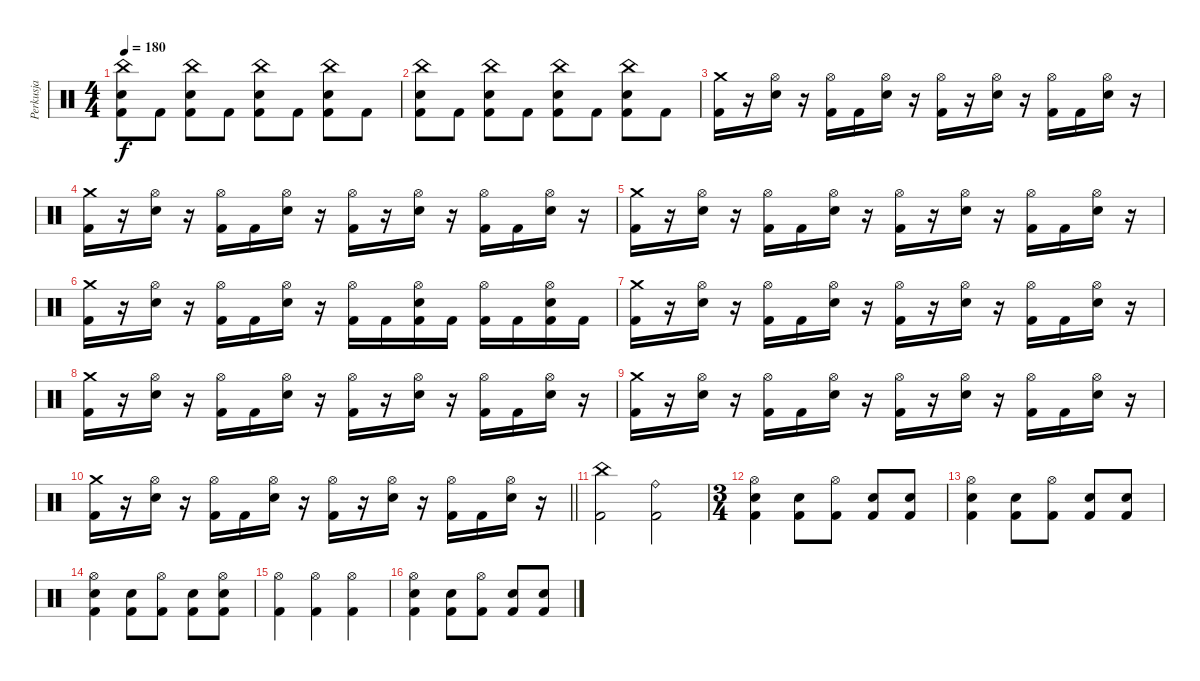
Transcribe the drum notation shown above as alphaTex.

\track ("Perkusja" "Perkusja") {instrument percussion}
\staff {score}
\articulation defaults
\ts (4 4)
\tempo 180
\clef neutral
\ks c
("China (hit)" "Snare (hit) 2" "Kick (hit) 2").8{dy f} "Kick (hit) 2".8 ("China (hit)" "Snare (hit) 2" "Kick (hit) 2").8 "Kick (hit) 2".8 ("China (hit)" "Snare (hit) 2" "Kick (hit) 2").8 "Kick (hit) 2".8 ("China (hit)" "Snare (hit) 2" "Kick (hit) 2").8 "Kick (hit) 2".8 |
("China (hit)" "Snare (hit) 2" "Kick (hit) 2").8 "Kick (hit) 2".8 ("China (hit)" "Snare (hit) 2" "Kick (hit) 2").8 "Kick (hit) 2".8 ("China (hit)" "Snare (hit) 2" "Kick (hit) 2").8 "Kick (hit) 2".8 ("China (hit)" "Snare (hit) 2" "Kick (hit) 2").8 "Kick (hit) 2".8 |
("Crash medium (hit)" "Kick (hit) 2").16 r.16 ("Hi-Hat (open)" "Snare (hit) 2").16 r.16 ("Hi-Hat (open)" "Kick (hit) 2").16 "Kick (hit) 2".16 ("Hi-Hat (open)" "Snare (hit) 2").16 r.16 ("Hi-Hat (open)" "Kick (hit) 2").16 r.16 ("Hi-Hat (open)" "Snare (hit) 2").16 r.16 ("Hi-Hat (open)" "Kick (hit) 2").16 "Kick (hit) 2".16 ("Hi-Hat (open)" "Snare (hit) 2").16 r.16 |
("Crash medium (hit)" "Kick (hit) 2").16 r.16 ("Hi-Hat (open)" "Snare (hit) 2").16 r.16 ("Hi-Hat (open)" "Kick (hit) 2").16 "Kick (hit) 2".16 ("Hi-Hat (open)" "Snare (hit) 2").16 r.16 ("Hi-Hat (open)" "Kick (hit) 2").16 r.16 ("Hi-Hat (open)" "Snare (hit) 2").16 r.16 ("Hi-Hat (open)" "Kick (hit) 2").16 "Kick (hit) 2".16 ("Hi-Hat (open)" "Snare (hit) 2").16 r.16 |
("Crash medium (hit)" "Kick (hit) 2").16 r.16 ("Hi-Hat (open)" "Snare (hit) 2").16 r.16 ("Hi-Hat (open)" "Kick (hit) 2").16 "Kick (hit) 2".16 ("Hi-Hat (open)" "Snare (hit) 2").16 r.16 ("Hi-Hat (open)" "Kick (hit) 2").16 r.16 ("Hi-Hat (open)" "Snare (hit) 2").16 r.16 ("Hi-Hat (open)" "Kick (hit) 2").16 "Kick (hit) 2".16 ("Hi-Hat (open)" "Snare (hit) 2").16 r.16 |
("Crash medium (hit)" "Kick (hit) 2").16 r.16 ("Hi-Hat (open)" "Snare (hit) 2").16 r.16 ("Hi-Hat (open)" "Kick (hit) 2").16 "Kick (hit) 2".16 ("Hi-Hat (open)" "Snare (hit) 2").16 r.16 ("Hi-Hat (open)" "Kick (hit) 2").16 "Kick (hit) 2".16 ("Hi-Hat (open)" "Snare (hit) 2" "Kick (hit) 2").16 "Kick (hit) 2".16 ("Hi-Hat (open)" "Kick (hit) 2").16 "Kick (hit) 2".16 ("Hi-Hat (open)" "Snare (hit) 2" "Kick (hit) 2").16 "Kick (hit) 2".16 |
("Crash medium (hit)" "Kick (hit) 2").16 r.16 ("Hi-Hat (open)" "Snare (hit) 2").16 r.16 ("Hi-Hat (open)" "Kick (hit) 2").16 "Kick (hit) 2".16 ("Hi-Hat (open)" "Snare (hit) 2").16 r.16 ("Hi-Hat (open)" "Kick (hit) 2").16 r.16 ("Hi-Hat (open)" "Snare (hit) 2").16 r.16 ("Hi-Hat (open)" "Kick (hit) 2").16 "Kick (hit) 2".16 ("Hi-Hat (open)" "Snare (hit) 2").16 r.16 |
("Crash medium (hit)" "Kick (hit) 2").16 r.16 ("Hi-Hat (open)" "Snare (hit) 2").16 r.16 ("Hi-Hat (open)" "Kick (hit) 2").16 "Kick (hit) 2".16 ("Hi-Hat (open)" "Snare (hit) 2").16 r.16 ("Hi-Hat (open)" "Kick (hit) 2").16 r.16 ("Hi-Hat (open)" "Snare (hit) 2").16 r.16 ("Hi-Hat (open)" "Kick (hit) 2").16 "Kick (hit) 2".16 ("Hi-Hat (open)" "Snare (hit) 2").16 r.16 |
("Crash medium (hit)" "Kick (hit) 2").16 r.16 ("Hi-Hat (open)" "Snare (hit) 2").16 r.16 ("Hi-Hat (open)" "Kick (hit) 2").16 "Kick (hit) 2".16 ("Hi-Hat (open)" "Snare (hit) 2").16 r.16 ("Hi-Hat (open)" "Kick (hit) 2").16 r.16 ("Hi-Hat (open)" "Snare (hit) 2").16 r.16 ("Hi-Hat (open)" "Kick (hit) 2").16 "Kick (hit) 2".16 ("Hi-Hat (open)" "Snare (hit) 2").16 r.16 |
\barLineRight lightlight
("Crash medium (hit)" "Kick (hit) 2").16 r.16 ("Hi-Hat (open)" "Snare (hit) 2").16 r.16 ("Hi-Hat (open)" "Kick (hit) 2").16 "Kick (hit) 2".16 ("Hi-Hat (open)" "Snare (hit) 2").16 r.16 ("Hi-Hat (open)" "Kick (hit) 2").16 r.16 ("Hi-Hat (open)" "Snare (hit) 2").16 r.16 ("Hi-Hat (open)" "Kick (hit) 2").16 "Kick (hit) 2".16 ("Hi-Hat (open)" "Snare (hit) 2").16 r.16 |
("China (hit)" "Kick (hit) 2").2 ("Ride (bell)" "Kick (hit) 2").2 |
\ts (3 4)
("Hi-Hat (open)" "Snare (hit) 2" "Kick (hit) 2").4 ("Snare (hit) 2" "Kick (hit) 2").8 ("Hi-Hat (open)" "Kick (hit) 2").8 ("Snare (hit) 2" "Kick (hit) 2").8 ("Snare (hit) 2" "Kick (hit) 2").8 |
("Hi-Hat (open)" "Snare (hit) 2" "Kick (hit) 2").4 ("Snare (hit) 2" "Kick (hit) 2").8 ("Hi-Hat (open)" "Kick (hit) 2").8 ("Snare (hit) 2" "Kick (hit) 2").8 ("Snare (hit) 2" "Kick (hit) 2").8 |
("Hi-Hat (open)" "Snare (hit) 2" "Kick (hit) 2").4 ("Snare (hit) 2" "Kick (hit) 2").8 ("Hi-Hat (open)" "Kick (hit) 2").8 ("Snare (hit) 2" "Kick (hit) 2").8 ("Hi-Hat (open)" "Snare (hit) 2" "Kick (hit) 2").8 |
("Hi-Hat (open)" "Kick (hit) 2").4 ("Hi-Hat (open)" "Kick (hit) 2").4 ("Hi-Hat (open)" "Kick (hit) 2").4 |
("Hi-Hat (open)" "Snare (hit) 2" "Kick (hit) 2").4 ("Snare (hit) 2" "Kick (hit) 2").8 ("Hi-Hat (open)" "Kick (hit) 2").8 ("Snare (hit) 2" "Kick (hit) 2").8 ("Snare (hit) 2" "Kick (hit) 2").8
